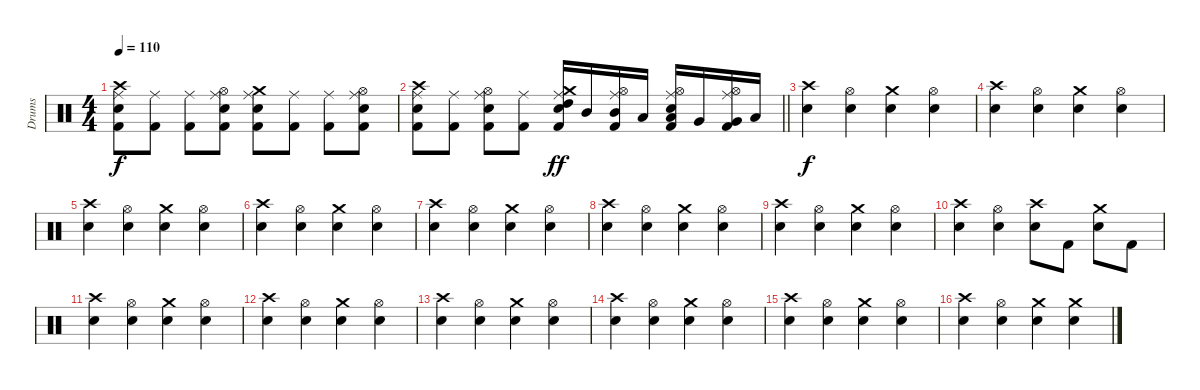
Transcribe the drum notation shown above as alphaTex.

\track ("Drums" "Drums") {instrument percussion}
\staff {score}
\articulation defaults
\ts (4 4)
\tempo 110
\clef neutral
\ks c
("Kick (hit) 2" "Crash high (hit)" "Ride (middle)" "Snare (hit) 2").8{dy f} ("Kick (hit) 2" "Ride (middle)").8 ("Kick (hit) 2" "Ride (middle)").8 ("Kick (hit) 2" "Hi-Hat (open)" "Ride (middle)" "Snare (hit) 2").8 ("Kick (hit) 2" "Crash medium (hit)" "Ride (middle)" "Snare (hit) 2").8 ("Kick (hit) 2" "Ride (middle)").8 ("Kick (hit) 2" "Ride (middle)").8 ("Kick (hit) 2" "Hi-Hat (open)" "Ride (middle)" "Snare (hit) 2").8 |
\barLineRight lightlight
("Kick (hit) 2" "Crash high (hit)" "Ride (middle)" "Snare (hit) 2").8 ("Kick (hit) 2" "Ride (middle)").8 ("Kick (hit) 2" "Hi-Hat (open)" "Ride (middle)" "Snare (hit) 2").8 ("Kick (hit) 2" "Ride (middle)").8 ("Kick (hit) 2" "Crash medium (hit)" "Ride (middle)" "High Tom (hit)" "Snare (hit) 2").16{dy ff} "Mid Tom (hit)".16 ("Kick (hit) 2" "Hi-Hat (open)" "Ride (middle)" "Mid Tom (hit)").16 "Low Tom (hit)".16 ("Kick (hit) 2" "Hi-Hat (open)" "Ride (middle)" "Low Tom (hit)" "Snare (hit) 2").16 "Very Low Tom (hit)".16 ("Kick (hit) 2" "Hi-Hat (open)" "Ride (middle)" "Very Low Tom (hit)").16 "Low Floor Tom (hit)".16 |
\section ("" "")
("Crash high (hit)" "Snare (hit) 2").4{dy f} ("Hi-Hat (open)" "Snare (hit) 2").4 ("Crash medium (hit)" "Snare (hit) 2").4 ("Hi-Hat (open)" "Snare (hit) 2").4 |
("Crash high (hit)" "Snare (hit) 2").4 ("Hi-Hat (open)" "Snare (hit) 2").4 ("Crash medium (hit)" "Snare (hit) 2").4 ("Hi-Hat (open)" "Snare (hit) 2").4 |
("Crash high (hit)" "Snare (hit) 2").4 ("Hi-Hat (open)" "Snare (hit) 2").4 ("Crash medium (hit)" "Snare (hit) 2").4 ("Hi-Hat (open)" "Snare (hit) 2").4 |
("Crash high (hit)" "Snare (hit) 2").4 ("Hi-Hat (open)" "Snare (hit) 2").4 ("Crash medium (hit)" "Snare (hit) 2").4 ("Hi-Hat (open)" "Snare (hit) 2").4 |
("Crash high (hit)" "Snare (hit) 2").4 ("Hi-Hat (open)" "Snare (hit) 2").4 ("Crash medium (hit)" "Snare (hit) 2").4 ("Hi-Hat (open)" "Snare (hit) 2").4 |
("Crash high (hit)" "Snare (hit) 2").4 ("Hi-Hat (open)" "Snare (hit) 2").4 ("Crash medium (hit)" "Snare (hit) 2").4 ("Hi-Hat (open)" "Snare (hit) 2").4 |
("Crash high (hit)" "Snare (hit) 2").4 ("Hi-Hat (open)" "Snare (hit) 2").4 ("Crash medium (hit)" "Snare (hit) 2").4 ("Hi-Hat (open)" "Snare (hit) 2").4 |
("Crash high (hit)" "Snare (hit) 2").4 ("Hi-Hat (open)" "Snare (hit) 2").4 ("Crash high (hit)" "Snare (hit) 2").8 "Kick (hit) 2".8 ("Crash medium (hit)" "Snare (hit) 2").8 "Kick (hit) 2".8 |
("Crash high (hit)" "Snare (hit) 2").4 ("Hi-Hat (open)" "Snare (hit) 2").4 ("Crash medium (hit)" "Snare (hit) 2").4 ("Hi-Hat (open)" "Snare (hit) 2").4 |
("Crash high (hit)" "Snare (hit) 2").4 ("Hi-Hat (open)" "Snare (hit) 2").4 ("Crash medium (hit)" "Snare (hit) 2").4 ("Hi-Hat (open)" "Snare (hit) 2").4 |
("Crash high (hit)" "Snare (hit) 2").4 ("Hi-Hat (open)" "Snare (hit) 2").4 ("Crash medium (hit)" "Snare (hit) 2").4 ("Hi-Hat (open)" "Snare (hit) 2").4 |
("Crash high (hit)" "Snare (hit) 2").4 ("Hi-Hat (open)" "Snare (hit) 2").4 ("Crash medium (hit)" "Snare (hit) 2").4 ("Hi-Hat (open)" "Snare (hit) 2").4 |
("Crash high (hit)" "Snare (hit) 2").4 ("Hi-Hat (open)" "Snare (hit) 2").4 ("Crash medium (hit)" "Snare (hit) 2").4 ("Hi-Hat (open)" "Snare (hit) 2").4 |
("Crash high (hit)" "Snare (hit) 2").4 ("Hi-Hat (open)" "Snare (hit) 2").4 ("Crash medium (hit)" "Snare (hit) 2").4 ("Crash medium (hit)" "Snare (hit) 2").4
